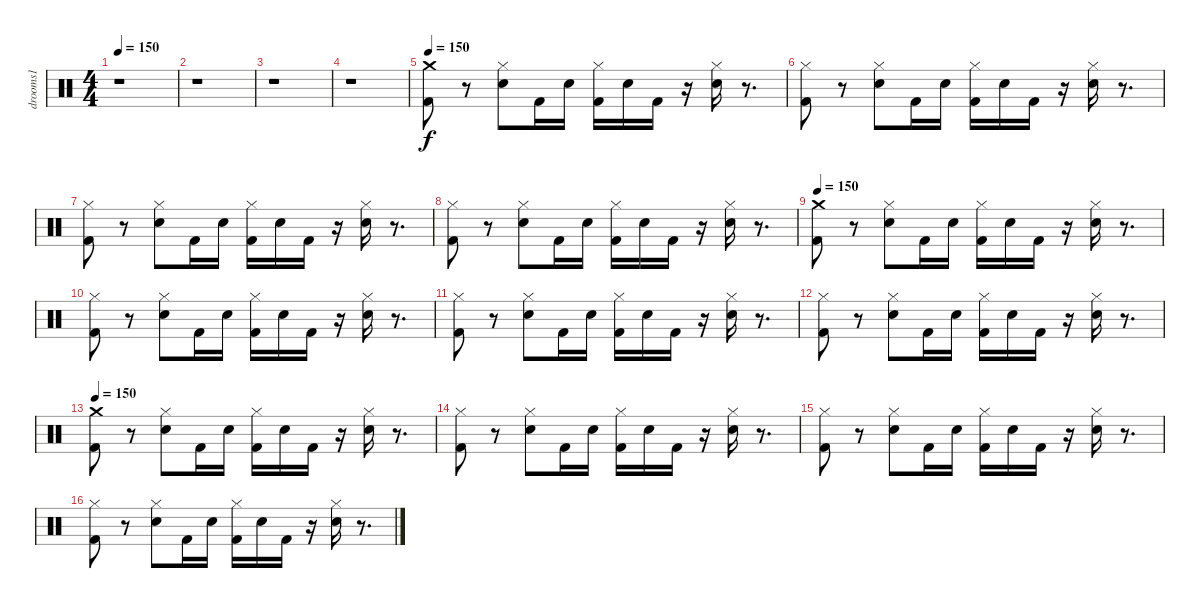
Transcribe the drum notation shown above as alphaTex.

\track ("drooms1" "drooms1") {instrument percussion}
\staff {score}
\articulation defaults
\ts (4 4)
\tempo 150
\clef neutral
\ks c
r.1{dy f} |
r.1 |
r.1 |
r.1 |
\tempo 150
("Crash medium (hit)" "Kick (hit) 2").8 r.8 ("Hi-Hat (closed)" "Electric Snare (hit)").8 "Kick (hit) 2".16 "Electric Snare (hit)".16 ("Hi-Hat (closed)" "Kick (hit) 2").16 "Electric Snare (hit)".16 "Kick (hit) 2".16 r.16 ("Hi-Hat (closed)" "Electric Snare (hit)").16 r.8{d} |
("Hi-Hat (closed)" "Kick (hit) 2").8 r.8 ("Hi-Hat (closed)" "Electric Snare (hit)").8 "Kick (hit) 2".16 "Electric Snare (hit)".16 ("Hi-Hat (closed)" "Kick (hit) 2").16 "Electric Snare (hit)".16 "Kick (hit) 2".16 r.16 ("Hi-Hat (closed)" "Electric Snare (hit)").16 r.8{d} |
("Hi-Hat (closed)" "Kick (hit) 2").8 r.8 ("Hi-Hat (closed)" "Electric Snare (hit)").8 "Kick (hit) 2".16 "Electric Snare (hit)".16 ("Hi-Hat (closed)" "Kick (hit) 2").16 "Electric Snare (hit)".16 "Kick (hit) 2".16 r.16 ("Hi-Hat (closed)" "Electric Snare (hit)").16 r.8{d} |
("Hi-Hat (closed)" "Kick (hit) 2").8 r.8 ("Hi-Hat (closed)" "Electric Snare (hit)").8 "Kick (hit) 2".16 "Electric Snare (hit)".16 ("Hi-Hat (closed)" "Kick (hit) 2").16 "Electric Snare (hit)".16 "Kick (hit) 2".16 r.16 ("Hi-Hat (closed)" "Electric Snare (hit)").16 r.8{d} |
\tempo 150
("Crash medium (hit)" "Kick (hit) 2").8 r.8 ("Hi-Hat (closed)" "Electric Snare (hit)").8 "Kick (hit) 2".16 "Electric Snare (hit)".16 ("Hi-Hat (closed)" "Kick (hit) 2").16 "Electric Snare (hit)".16 "Kick (hit) 2".16 r.16 ("Hi-Hat (closed)" "Electric Snare (hit)").16 r.8{d} |
("Hi-Hat (closed)" "Kick (hit) 2").8 r.8 ("Hi-Hat (closed)" "Electric Snare (hit)").8 "Kick (hit) 2".16 "Electric Snare (hit)".16 ("Hi-Hat (closed)" "Kick (hit) 2").16 "Electric Snare (hit)".16 "Kick (hit) 2".16 r.16 ("Hi-Hat (closed)" "Electric Snare (hit)").16 r.8{d} |
("Hi-Hat (closed)" "Kick (hit) 2").8 r.8 ("Hi-Hat (closed)" "Electric Snare (hit)").8 "Kick (hit) 2".16 "Electric Snare (hit)".16 ("Hi-Hat (closed)" "Kick (hit) 2").16 "Electric Snare (hit)".16 "Kick (hit) 2".16 r.16 ("Hi-Hat (closed)" "Electric Snare (hit)").16 r.8{d} |
("Hi-Hat (closed)" "Kick (hit) 2").8 r.8 ("Hi-Hat (closed)" "Electric Snare (hit)").8 "Kick (hit) 2".16 "Electric Snare (hit)".16 ("Hi-Hat (closed)" "Kick (hit) 2").16 "Electric Snare (hit)".16 "Kick (hit) 2".16 r.16 ("Hi-Hat (closed)" "Electric Snare (hit)").16 r.8{d} |
\tempo 150
("Crash medium (hit)" "Kick (hit) 2").8 r.8 ("Hi-Hat (closed)" "Electric Snare (hit)").8 "Kick (hit) 2".16 "Electric Snare (hit)".16 ("Hi-Hat (closed)" "Kick (hit) 2").16 "Electric Snare (hit)".16 "Kick (hit) 2".16 r.16 ("Hi-Hat (closed)" "Electric Snare (hit)").16 r.8{d} |
("Hi-Hat (closed)" "Kick (hit) 2").8 r.8 ("Hi-Hat (closed)" "Electric Snare (hit)").8 "Kick (hit) 2".16 "Electric Snare (hit)".16 ("Hi-Hat (closed)" "Kick (hit) 2").16 "Electric Snare (hit)".16 "Kick (hit) 2".16 r.16 ("Hi-Hat (closed)" "Electric Snare (hit)").16 r.8{d} |
("Hi-Hat (closed)" "Kick (hit) 2").8 r.8 ("Hi-Hat (closed)" "Electric Snare (hit)").8 "Kick (hit) 2".16 "Electric Snare (hit)".16 ("Hi-Hat (closed)" "Kick (hit) 2").16 "Electric Snare (hit)".16 "Kick (hit) 2".16 r.16 ("Hi-Hat (closed)" "Electric Snare (hit)").16 r.8{d} |
("Hi-Hat (closed)" "Kick (hit) 2").8 r.8 ("Hi-Hat (closed)" "Electric Snare (hit)").8 "Kick (hit) 2".16 "Electric Snare (hit)".16 ("Hi-Hat (closed)" "Kick (hit) 2").16 "Electric Snare (hit)".16 "Kick (hit) 2".16 r.16 ("Hi-Hat (closed)" "Electric Snare (hit)").16 r.8{d}
